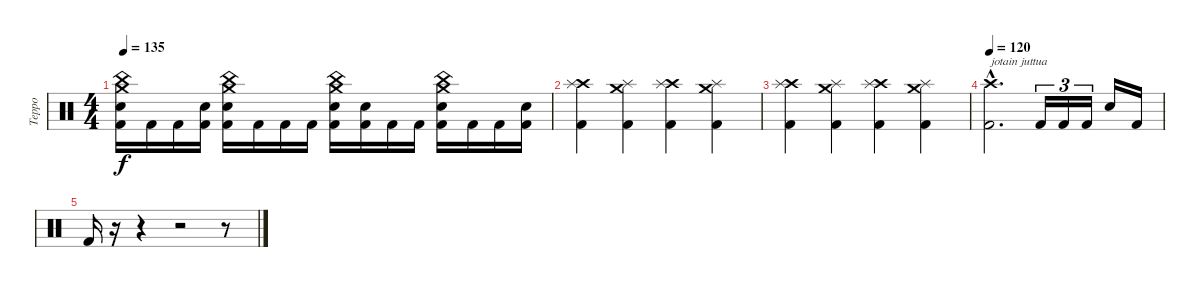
\track ("Teppo" "Teppo") {instrument percussion}
\staff {score}
\articulation defaults
\ts (4 4)
\tempo 135
\clef neutral
\ks c
("Crash medium (hit)" "China (hit)" "Electric Snare (hit)" "Kick (hit) 2").16{dy f} "Kick (hit) 2".16 "Kick (hit) 2".16 ("Electric Snare (hit)" "Kick (hit) 2").16 ("Crash medium (hit)" "China (hit)" "Electric Snare (hit)" "Kick (hit) 2").16 "Kick (hit) 2".16 "Kick (hit) 2".16 "Kick (hit) 2".16 ("Crash medium (hit)" "China (hit)" "Electric Snare (hit)" "Kick (hit) 2").16 ("Electric Snare (hit)" "Kick (hit) 2").16 "Kick (hit) 2".16 "Kick (hit) 2".16 ("Crash medium (hit)" "China (hit)" "Electric Snare (hit)" "Kick (hit) 2").16 "Kick (hit) 2".16 "Kick (hit) 2".16 ("Electric Snare (hit)" "Kick (hit) 2").16 |
("Crash high (hit)" "Splash (hit)" "Kick (hit) 2").4 ("Crash medium (hit)" "Splash (hit)" "Kick (hit) 2").4 ("Crash high (hit)" "Splash (hit)" "Kick (hit) 2").4 ("Crash medium (hit)" "Splash (hit)" "Kick (hit) 2").4 |
("Crash high (hit)" "Splash (hit)" "Kick (hit) 2").4 ("Crash medium (hit)" "Splash (hit)" "Kick (hit) 2").4 ("Crash high (hit)" "Splash (hit)" "Kick (hit) 2").4 ("Crash medium (hit)" "Splash (hit)" "Kick (hit) 2").4 |
\tempo 120
("Crash high (hit)"{hac} "Kick (hit) 2"{hac}).2{d txt "jotain juttua"} "Kick (hit) 2".16{tu (3 2)} "Kick (hit) 2".16{tu (3 2)} "Kick (hit) 2".16{tu (3 2)} "Electric Snare (hit)".16 "Kick (hit) 2".16 |
"Kick (hit) 2".16 r.16 r.4 r.2 r.8
